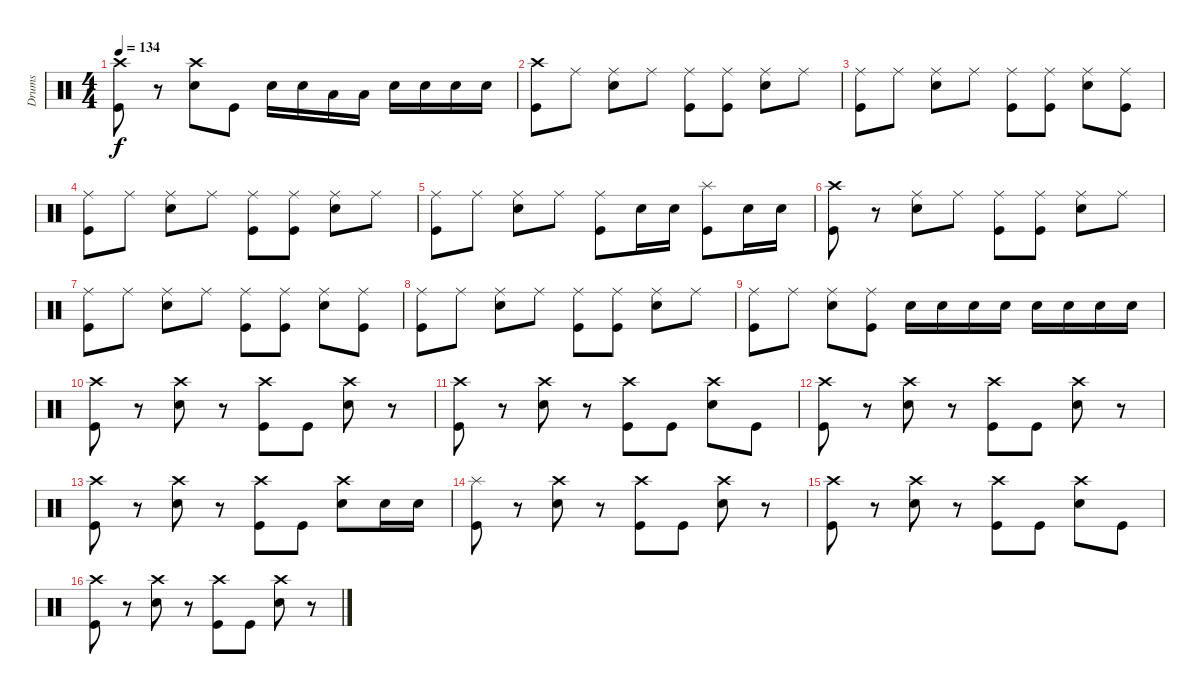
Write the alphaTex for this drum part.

\track ("Drums" "Drums") {instrument percussion}
\staff {score}
\articulation defaults
\ts (4 4)
\tempo 134
\clef neutral
\ks c
("Kick (hit)" "Crash high (hit)").8{dy f} r.8 ("Snare (hit) 2" "Crash high (hit)").8 "Kick (hit)".8 "Snare (hit) 2".16 "Snare (hit) 2".16 "Low Tom (hit)".16 "Low Tom (hit)".16 "Snare (hit) 2".16 "Snare (hit) 2".16 "Snare (hit) 2".16 "Snare (hit) 2".16 |
("Crash high (hit)" "Kick (hit)").8 "Ride (middle)".8 ("Ride (middle)" "Snare (hit) 2").8 "Ride (middle)".8 ("Ride (middle)" "Kick (hit)").8 ("Ride (middle)" "Kick (hit)").8 ("Ride (middle)" "Snare (hit) 2").8 "Ride (middle)".8 |
("Ride (middle)" "Kick (hit)").8 "Ride (middle)".8 ("Ride (middle)" "Snare (hit) 2").8 "Ride (middle)".8 ("Ride (middle)" "Kick (hit)").8 ("Ride (middle)" "Kick (hit)").8 ("Ride (middle)" "Snare (hit) 2").8 ("Ride (middle)" "Kick (hit)").8 |
("Ride (middle)" "Kick (hit)").8 "Ride (middle)".8 ("Ride (middle)" "Snare (hit) 2").8 "Ride (middle)".8 ("Ride (middle)" "Kick (hit)").8 ("Ride (middle)" "Kick (hit)").8 ("Ride (middle)" "Snare (hit) 2").8 "Ride (middle)".8 |
("Ride (middle)" "Kick (hit)").8 "Ride (middle)".8 ("Ride (middle)" "Snare (hit) 2").8 "Ride (middle)".8 ("Ride (middle)" "Kick (hit)").8 "Snare (hit) 2".16 "Snare (hit) 2".16 ("Splash (hit)" "Kick (hit)").8 "Snare (hit) 2".16 "Snare (hit) 2".16 |
("Kick (hit)" "Crash high (hit)").8 r.8 ("Ride (middle)" "Snare (hit) 2").8 "Ride (middle)".8 ("Ride (middle)" "Kick (hit)").8 ("Ride (middle)" "Kick (hit)").8 ("Ride (middle)" "Snare (hit) 2").8 "Ride (middle)".8 |
("Ride (middle)" "Kick (hit)").8 "Ride (middle)".8 ("Ride (middle)" "Snare (hit) 2").8 "Ride (middle)".8 ("Ride (middle)" "Kick (hit)").8 ("Ride (middle)" "Kick (hit)").8 ("Ride (middle)" "Snare (hit) 2").8 ("Ride (middle)" "Kick (hit)").8 |
("Ride (middle)" "Kick (hit)").8 "Ride (middle)".8 ("Ride (middle)" "Snare (hit) 2").8 "Ride (middle)".8 ("Ride (middle)" "Kick (hit)").8 ("Ride (middle)" "Kick (hit)").8 ("Ride (middle)" "Snare (hit) 2").8 "Ride (middle)".8 |
("Ride (middle)" "Kick (hit)").8 "Ride (middle)".8 ("Ride (middle)" "Snare (hit) 2").8 ("Ride (middle)" "Kick (hit)").8 "Snare (hit) 2".16 "Snare (hit) 2".16 "Snare (hit) 2".16 "Snare (hit) 2".16 "Snare (hit) 2".16 "Snare (hit) 2".16 "Snare (hit) 2".16 "Snare (hit) 2".16 |
("Crash high (hit)" "Kick (hit)").8 r.8 ("Snare (hit) 2" "Crash high (hit)").8 r.8 ("Kick (hit)" "Crash high (hit)").8 "Kick (hit)".8 ("Snare (hit) 2" "Crash high (hit)").8 r.8 |
("Kick (hit)" "Crash high (hit)").8 r.8 ("Snare (hit) 2" "Crash high (hit)").8 r.8 ("Kick (hit)" "Crash high (hit)").8 "Kick (hit)".8 ("Snare (hit) 2" "Crash high (hit)").8 "Kick (hit)".8 |
("Kick (hit)" "Crash high (hit)").8 r.8 ("Snare (hit) 2" "Crash high (hit)").8 r.8 ("Kick (hit)" "Crash high (hit)").8 "Kick (hit)".8 ("Snare (hit) 2" "Crash high (hit)").8 r.8 |
("Kick (hit)" "Crash high (hit)").8 r.8 ("Snare (hit) 2" "Crash high (hit)").8 r.8 ("Kick (hit)" "Crash high (hit)").8 "Kick (hit)".8 ("Snare (hit) 2" "Crash high (hit)").8 "Snare (hit) 2".16 "Snare (hit) 2".16 |
("Splash (hit)" "Kick (hit)").8 r.8 ("Snare (hit) 2" "Crash high (hit)").8 r.8 ("Kick (hit)" "Crash high (hit)").8 "Kick (hit)".8 ("Snare (hit) 2" "Crash high (hit)").8 r.8 |
("Kick (hit)" "Crash high (hit)").8 r.8 ("Snare (hit) 2" "Crash high (hit)").8 r.8 ("Kick (hit)" "Crash high (hit)").8 "Kick (hit)".8 ("Snare (hit) 2" "Crash high (hit)").8 "Kick (hit)".8 |
("Kick (hit)" "Crash high (hit)").8 r.8 ("Snare (hit) 2" "Crash high (hit)").8 r.8 ("Kick (hit)" "Crash high (hit)").8 "Kick (hit)".8 ("Snare (hit) 2" "Crash high (hit)").8 r.8
